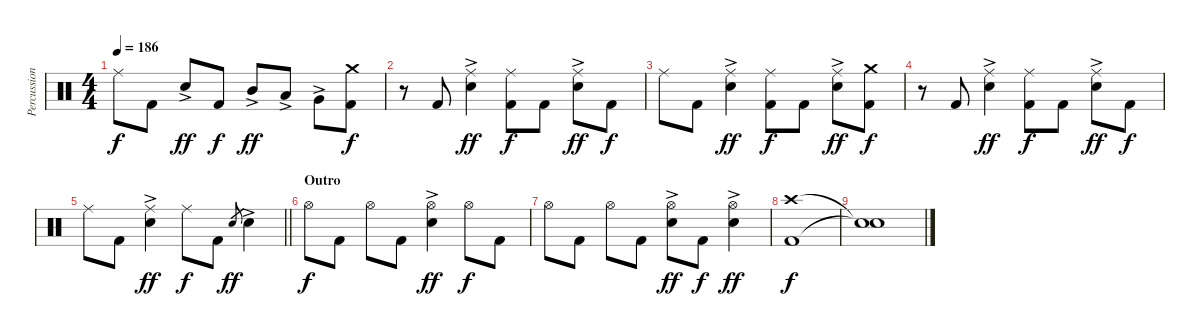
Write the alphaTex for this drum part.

\track ("Percussion" "Percussion") {instrument percussion}
\staff {score}
\articulation defaults
\ts (4 4)
\tempo 186
\clef neutral
\ks c "Ride (middle)".8{dy f} "Kick (hit) 2".8 "Electric Snare (hit)"{ac}.8{dy ff} "Kick (hit) 2".8{dy f} "Mid Tom (hit)"{ac}.8{dy ff} "Low Tom (hit)"{ac}.8 "Very Low Tom (hit)"{ac}.8
("Crash medium (hit)" "Kick (hit) 2").8{dy f} |
r.8 "Kick (hit) 2".8 ("Ride (middle)" "Electric Snare (hit)"{ac}).4{dy ff} ("Ride (middle)" "Kick (hit) 2").8{dy f} "Kick (hit) 2".8 ("Ride (middle)" "Electric Snare (hit)"{ac}).8{dy ff} "Kick (hit) 2".8{dy f} |
"Ride (middle)".8 "Kick (hit) 2".8 ("Ride (middle)" "Electric Snare (hit)"{ac}).4{dy ff} ("Ride (middle)" "Kick (hit) 2").8{dy f} "Kick (hit) 2".8 ("Ride (middle)" "Electric Snare (hit)"{ac}).8{dy ff} ("Crash medium (hit)" "Kick (hit) 2").8{dy f} |
r.8 "Kick (hit) 2".8 ("Ride (middle)" "Electric Snare (hit)"{ac}).4{dy ff} ("Ride (middle)" "Kick (hit) 2").8{dy f} "Kick (hit) 2".8 ("Ride (middle)" "Electric Snare (hit)"{ac}).8{dy ff} "Kick (hit) 2".8{dy f} |
\barLineRight lightlight "Ride (middle)".8 "Kick (hit) 2".8
("Ride (middle)" "Electric Snare (hit)"{ac}).4{dy ff} "Ride (middle)".8{dy f} "Kick (hit) 2".8 "Electric Snare (hit)".8{gr dy ff} "Electric Snare (hit)"{ac}.4 |
\section ("" "Outro")
"Hi-Hat (open)".8{dy f} "Kick (hit) 2".8 "Hi-Hat (open)".8 "Kick (hit) 2".8 ("Hi-Hat (open)" "Electric Snare (hit)"{ac}).4{dy ff} "Hi-Hat (open)".8{dy f} "Kick (hit) 2".8 |
"Hi-Hat (open)".8 "Kick (hit) 2".8 "Hi-Hat (open)".8 "Kick (hit) 2".8 ("Hi-Hat (open)" "Electric Snare (hit)"{ac}).8{dy ff} "Kick (hit) 2".8{dy f} ("Hi-Hat (open)" "Electric Snare (hit)"{ac}).4{dy ff} |
("Crash high (hit)" "Kick (hit) 2").1{dy f} |
("Snare (hit)"{t} "Snare (hit)"{t}).1
